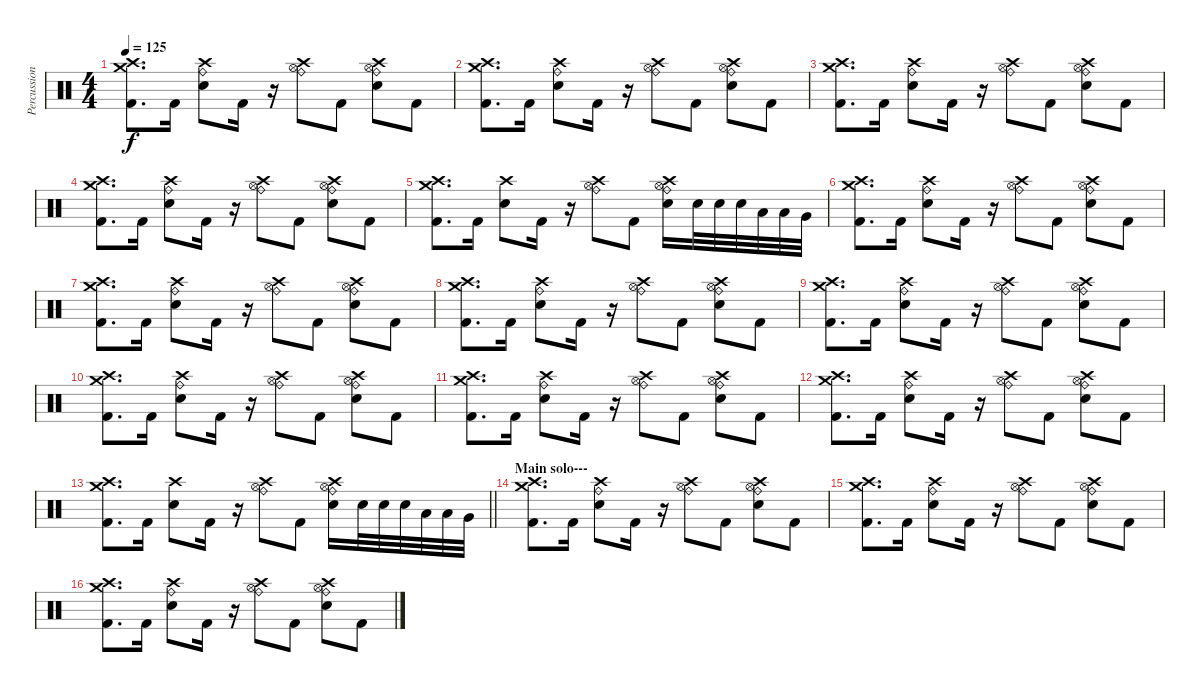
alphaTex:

\track ("Percussion" "Percussion") {instrument percussion}
\staff {score}
\articulation defaults
\ts (4 4)
\tempo 125
\clef neutral
\ks c
("Crash medium (hit)" "Crash high (hit)" "Kick (hit) 2").8{d dy f} "Kick (hit) 2".16 ("Ride (bell)" "Crash high (hit)" "Electric Snare (hit)").8 "Kick (hit) 2".16 r.16 ("Ride (bell)" "Crash high (hit)" "Hi-Hat (open)").8 "Kick (hit) 2".8 ("Ride (bell)" "Crash high (hit)" "Hi-Hat (open)" "Electric Snare (hit)").8 "Kick (hit) 2".8 |
("Crash medium (hit)" "Crash high (hit)" "Kick (hit) 2").8{d} "Kick (hit) 2".16 ("Ride (bell)" "Crash high (hit)" "Electric Snare (hit)").8 "Kick (hit) 2".16 r.16 ("Ride (bell)" "Crash high (hit)" "Hi-Hat (open)").8 "Kick (hit) 2".8 ("Ride (bell)" "Crash high (hit)" "Hi-Hat (open)" "Electric Snare (hit)").8 "Kick (hit) 2".8 |
("Crash medium (hit)" "Crash high (hit)" "Kick (hit) 2").8{d} "Kick (hit) 2".16 ("Ride (bell)" "Crash high (hit)" "Electric Snare (hit)").8 "Kick (hit) 2".16 r.16 ("Ride (bell)" "Crash high (hit)" "Hi-Hat (open)").8 "Kick (hit) 2".8 ("Ride (bell)" "Crash high (hit)" "Hi-Hat (open)" "Electric Snare (hit)").8 "Kick (hit) 2".8 |
("Crash medium (hit)" "Crash high (hit)" "Kick (hit) 2").8{d} "Kick (hit) 2".16 ("Ride (bell)" "Crash high (hit)" "Electric Snare (hit)").8 "Kick (hit) 2".16 r.16 ("Ride (bell)" "Crash high (hit)" "Hi-Hat (open)").8 "Kick (hit) 2".8 ("Ride (bell)" "Crash high (hit)" "Hi-Hat (open)" "Electric Snare (hit)").8 "Kick (hit) 2".8 |
("Crash medium (hit)" "Crash high (hit)" "Kick (hit) 2").8{d} "Kick (hit) 2".16 ("Crash high (hit)" "Electric Snare (hit)").8 "Kick (hit) 2".16 r.16 ("Ride (bell)" "Crash high (hit)" "Hi-Hat (open)").8 "Kick (hit) 2".8 ("Ride (bell)" "Crash high (hit)" "Hi-Hat (open)" "Electric Snare (hit)").16 "Electric Snare (hit)".32 "Electric Snare (hit)".32 "Electric Snare (hit)".32 "Low Tom (hit)".32 "Low Tom (hit)".32 "Very Low Tom (hit)".32 |
("Crash medium (hit)" "Crash high (hit)" "Kick (hit) 2").8{d} "Kick (hit) 2".16 ("Ride (bell)" "Crash high (hit)" "Electric Snare (hit)").8 "Kick (hit) 2".16 r.16 ("Ride (bell)" "Crash high (hit)" "Hi-Hat (open)").8 "Kick (hit) 2".8 ("Ride (bell)" "Crash high (hit)" "Hi-Hat (open)" "Electric Snare (hit)").8 "Kick (hit) 2".8 |
("Crash medium (hit)" "Crash high (hit)" "Kick (hit) 2").8{d} "Kick (hit) 2".16 ("Ride (bell)" "Crash high (hit)" "Electric Snare (hit)").8 "Kick (hit) 2".16 r.16 ("Ride (bell)" "Crash high (hit)" "Hi-Hat (open)").8 "Kick (hit) 2".8 ("Ride (bell)" "Crash high (hit)" "Hi-Hat (open)" "Electric Snare (hit)").8 "Kick (hit) 2".8 |
("Crash medium (hit)" "Crash high (hit)" "Kick (hit) 2").8{d} "Kick (hit) 2".16 ("Ride (bell)" "Crash high (hit)" "Electric Snare (hit)").8 "Kick (hit) 2".16 r.16 ("Ride (bell)" "Crash high (hit)" "Hi-Hat (open)").8 "Kick (hit) 2".8 ("Ride (bell)" "Crash high (hit)" "Hi-Hat (open)" "Electric Snare (hit)").8 "Kick (hit) 2".8 |
("Crash medium (hit)" "Crash high (hit)" "Kick (hit) 2").8{d} "Kick (hit) 2".16 ("Ride (bell)" "Crash high (hit)" "Electric Snare (hit)").8 "Kick (hit) 2".16 r.16 ("Ride (bell)" "Crash high (hit)" "Hi-Hat (open)").8 "Kick (hit) 2".8 ("Ride (bell)" "Crash high (hit)" "Hi-Hat (open)" "Electric Snare (hit)").8 "Kick (hit) 2".8 |
("Crash medium (hit)" "Crash high (hit)" "Kick (hit) 2").8{d} "Kick (hit) 2".16 ("Ride (bell)" "Crash high (hit)" "Electric Snare (hit)").8 "Kick (hit) 2".16 r.16 ("Ride (bell)" "Crash high (hit)" "Hi-Hat (open)").8 "Kick (hit) 2".8 ("Ride (bell)" "Crash high (hit)" "Hi-Hat (open)" "Electric Snare (hit)").8 "Kick (hit) 2".8 |
("Crash medium (hit)" "Crash high (hit)" "Kick (hit) 2").8{d} "Kick (hit) 2".16 ("Ride (bell)" "Crash high (hit)" "Electric Snare (hit)").8 "Kick (hit) 2".16 r.16 ("Ride (bell)" "Crash high (hit)" "Hi-Hat (open)").8 "Kick (hit) 2".8 ("Ride (bell)" "Crash high (hit)" "Hi-Hat (open)" "Electric Snare (hit)").8 "Kick (hit) 2".8 |
("Crash medium (hit)" "Crash high (hit)" "Kick (hit) 2").8{d} "Kick (hit) 2".16 ("Ride (bell)" "Crash high (hit)" "Electric Snare (hit)").8 "Kick (hit) 2".16 r.16 ("Ride (bell)" "Crash high (hit)" "Hi-Hat (open)").8 "Kick (hit) 2".8 ("Ride (bell)" "Crash high (hit)" "Hi-Hat (open)" "Electric Snare (hit)").8 "Kick (hit) 2".8 |
\barLineRight lightlight
("Crash medium (hit)" "Crash high (hit)" "Kick (hit) 2").8{d} "Kick (hit) 2".16 ("Crash high (hit)" "Electric Snare (hit)").8 "Kick (hit) 2".16 r.16 ("Ride (bell)" "Crash high (hit)" "Hi-Hat (open)").8 "Kick (hit) 2".8 ("Ride (bell)" "Crash high (hit)" "Hi-Hat (open)" "Electric Snare (hit)").16 "Electric Snare (hit)".32 "Electric Snare (hit)".32 "Electric Snare (hit)".32 "Low Tom (hit)".32 "Low Tom (hit)".32 "Very Low Tom (hit)".32 |
\section ("" "Main solo---")
("Crash medium (hit)" "Crash high (hit)" "Kick (hit) 2").8{d} "Kick (hit) 2".16 ("Ride (bell)" "Crash high (hit)" "Electric Snare (hit)").8 "Kick (hit) 2".16 r.16 ("Ride (bell)" "Crash high (hit)" "Hi-Hat (open)").8 "Kick (hit) 2".8 ("Ride (bell)" "Crash high (hit)" "Hi-Hat (open)" "Electric Snare (hit)").8 "Kick (hit) 2".8 |
("Crash medium (hit)" "Crash high (hit)" "Kick (hit) 2").8{d} "Kick (hit) 2".16 ("Ride (bell)" "Crash high (hit)" "Electric Snare (hit)").8 "Kick (hit) 2".16 r.16 ("Ride (bell)" "Crash high (hit)" "Hi-Hat (open)").8 "Kick (hit) 2".8 ("Ride (bell)" "Crash high (hit)" "Hi-Hat (open)" "Electric Snare (hit)").8 "Kick (hit) 2".8 |
("Crash medium (hit)" "Crash high (hit)" "Kick (hit) 2").8{d} "Kick (hit) 2".16 ("Ride (bell)" "Crash high (hit)" "Electric Snare (hit)").8 "Kick (hit) 2".16 r.16 ("Ride (bell)" "Crash high (hit)" "Hi-Hat (open)").8 "Kick (hit) 2".8 ("Ride (bell)" "Crash high (hit)" "Hi-Hat (open)" "Electric Snare (hit)").8 "Kick (hit) 2".8
